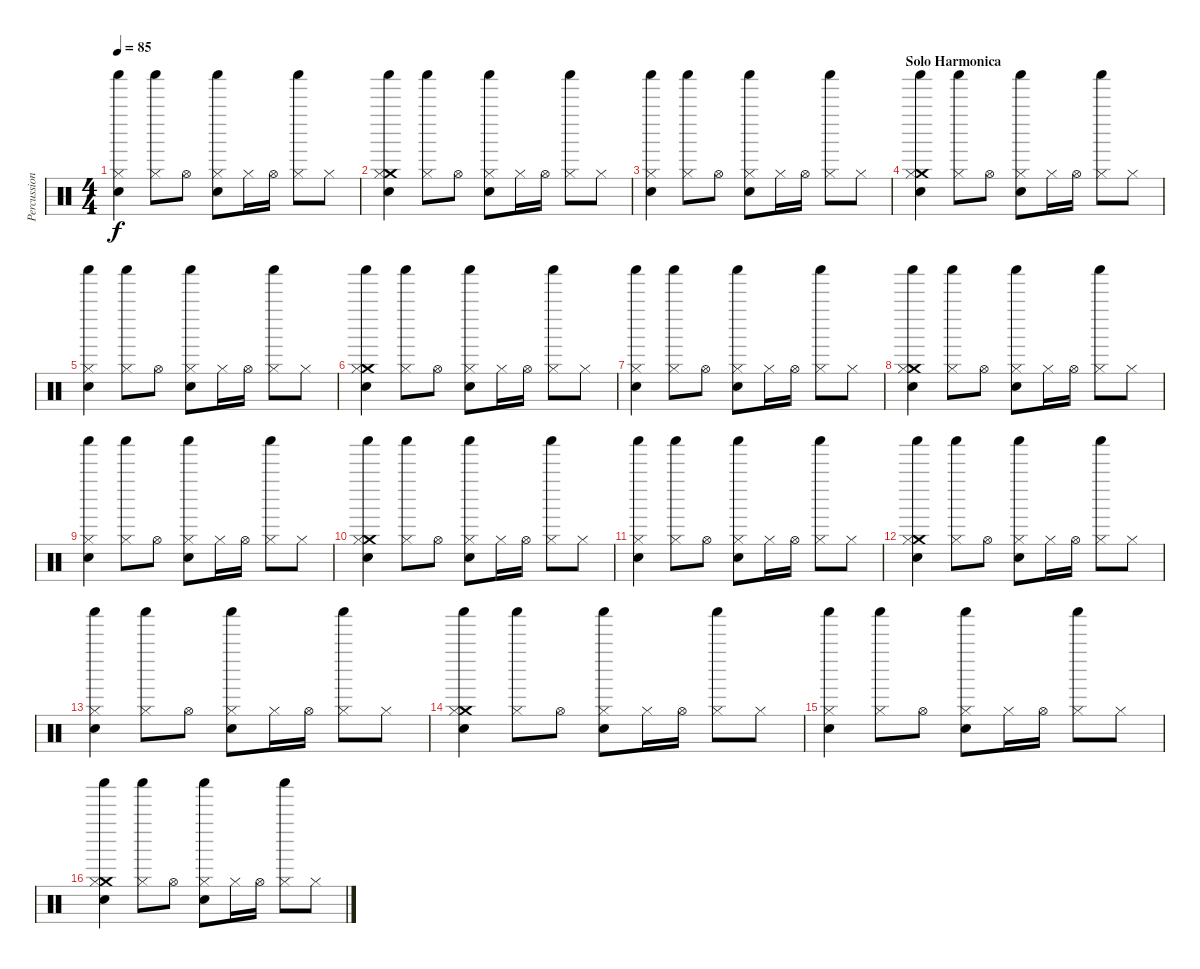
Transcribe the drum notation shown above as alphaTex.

\track ("Percussions" "Percussion") {instrument percussion}
\staff {score}
\articulation defaults
\ts (4 4)
\tempo 85
\clef neutral
\ks c
("Shaker (hit)" "Electric Snare (hit)" "Hi-Hat (closed)").4{dy f} ("Shaker (hit)" "Hi-Hat (closed)").8 "Hi-Hat (open)".8 ("Shaker (hit)" "Electric Snare (hit)" "Hi-Hat (closed)").8 "Hi-Hat (closed)".16 "Hi-Hat (open)".16 ("Shaker (hit)" "Hi-Hat (closed)").8 "Hi-Hat (closed)".8 |
("Shaker (hit)" "Electric Snare (hit)" "Crash medium (hit)" "Hi-Hat (closed)").4 ("Shaker (hit)" "Hi-Hat (closed)").8 "Hi-Hat (open)".8 ("Shaker (hit)" "Electric Snare (hit)" "Hi-Hat (closed)").8 "Hi-Hat (closed)".16 "Hi-Hat (open)".16 ("Shaker (hit)" "Hi-Hat (closed)").8 "Hi-Hat (closed)".8 |
("Shaker (hit)" "Electric Snare (hit)" "Hi-Hat (closed)").4 ("Shaker (hit)" "Hi-Hat (closed)").8 "Hi-Hat (open)".8 ("Shaker (hit)" "Electric Snare (hit)" "Hi-Hat (closed)").8 "Hi-Hat (closed)".16 "Hi-Hat (open)".16 ("Shaker (hit)" "Hi-Hat (closed)").8 "Hi-Hat (closed)".8 |
\section ("" "Solo Harmonica")
("Shaker (hit)" "Electric Snare (hit)" "Crash medium (hit)" "Hi-Hat (closed)").4 ("Shaker (hit)" "Hi-Hat (closed)").8 "Hi-Hat (open)".8 ("Shaker (hit)" "Electric Snare (hit)" "Hi-Hat (closed)").8 "Hi-Hat (closed)".16 "Hi-Hat (open)".16 ("Shaker (hit)" "Hi-Hat (closed)").8 "Hi-Hat (closed)".8 |
("Shaker (hit)" "Electric Snare (hit)" "Hi-Hat (closed)").4 ("Shaker (hit)" "Hi-Hat (closed)").8 "Hi-Hat (open)".8 ("Shaker (hit)" "Electric Snare (hit)" "Hi-Hat (closed)").8 "Hi-Hat (closed)".16 "Hi-Hat (open)".16 ("Shaker (hit)" "Hi-Hat (closed)").8 "Hi-Hat (closed)".8 |
("Shaker (hit)" "Electric Snare (hit)" "Crash medium (hit)" "Hi-Hat (closed)").4 ("Shaker (hit)" "Hi-Hat (closed)").8 "Hi-Hat (open)".8 ("Shaker (hit)" "Electric Snare (hit)" "Hi-Hat (closed)").8 "Hi-Hat (closed)".16 "Hi-Hat (open)".16 ("Shaker (hit)" "Hi-Hat (closed)").8 "Hi-Hat (closed)".8 |
("Shaker (hit)" "Electric Snare (hit)" "Hi-Hat (closed)").4 ("Shaker (hit)" "Hi-Hat (closed)").8 "Hi-Hat (open)".8 ("Shaker (hit)" "Electric Snare (hit)" "Hi-Hat (closed)").8 "Hi-Hat (closed)".16 "Hi-Hat (open)".16 ("Shaker (hit)" "Hi-Hat (closed)").8 "Hi-Hat (closed)".8 |
("Shaker (hit)" "Electric Snare (hit)" "Crash medium (hit)" "Hi-Hat (closed)").4 ("Shaker (hit)" "Hi-Hat (closed)").8 "Hi-Hat (open)".8 ("Shaker (hit)" "Electric Snare (hit)" "Hi-Hat (closed)").8 "Hi-Hat (closed)".16 "Hi-Hat (open)".16 ("Shaker (hit)" "Hi-Hat (closed)").8 "Hi-Hat (closed)".8 |
("Shaker (hit)" "Electric Snare (hit)" "Hi-Hat (closed)").4 ("Shaker (hit)" "Hi-Hat (closed)").8 "Hi-Hat (open)".8 ("Shaker (hit)" "Electric Snare (hit)" "Hi-Hat (closed)").8 "Hi-Hat (closed)".16 "Hi-Hat (open)".16 ("Shaker (hit)" "Hi-Hat (closed)").8 "Hi-Hat (closed)".8 |
("Shaker (hit)" "Electric Snare (hit)" "Crash medium (hit)" "Hi-Hat (closed)").4 ("Shaker (hit)" "Hi-Hat (closed)").8 "Hi-Hat (open)".8 ("Shaker (hit)" "Electric Snare (hit)" "Hi-Hat (closed)").8 "Hi-Hat (closed)".16 "Hi-Hat (open)".16 ("Shaker (hit)" "Hi-Hat (closed)").8 "Hi-Hat (closed)".8 |
("Shaker (hit)" "Electric Snare (hit)" "Hi-Hat (closed)").4 ("Shaker (hit)" "Hi-Hat (closed)").8 "Hi-Hat (open)".8 ("Shaker (hit)" "Electric Snare (hit)" "Hi-Hat (closed)").8 "Hi-Hat (closed)".16 "Hi-Hat (open)".16 ("Shaker (hit)" "Hi-Hat (closed)").8 "Hi-Hat (closed)".8 |
("Shaker (hit)" "Electric Snare (hit)" "Crash medium (hit)" "Hi-Hat (closed)").4 ("Shaker (hit)" "Hi-Hat (closed)").8 "Hi-Hat (open)".8 ("Shaker (hit)" "Electric Snare (hit)" "Hi-Hat (closed)").8 "Hi-Hat (closed)".16 "Hi-Hat (open)".16 ("Shaker (hit)" "Hi-Hat (closed)").8 "Hi-Hat (closed)".8 |
("Shaker (hit)" "Electric Snare (hit)" "Hi-Hat (closed)").4 ("Shaker (hit)" "Hi-Hat (closed)").8 "Hi-Hat (open)".8 ("Shaker (hit)" "Electric Snare (hit)" "Hi-Hat (closed)").8 "Hi-Hat (closed)".16 "Hi-Hat (open)".16 ("Shaker (hit)" "Hi-Hat (closed)").8 "Hi-Hat (closed)".8 |
("Shaker (hit)" "Electric Snare (hit)" "Crash medium (hit)" "Hi-Hat (closed)").4 ("Shaker (hit)" "Hi-Hat (closed)").8 "Hi-Hat (open)".8 ("Shaker (hit)" "Electric Snare (hit)" "Hi-Hat (closed)").8 "Hi-Hat (closed)".16 "Hi-Hat (open)".16 ("Shaker (hit)" "Hi-Hat (closed)").8 "Hi-Hat (closed)".8 |
("Shaker (hit)" "Electric Snare (hit)" "Hi-Hat (closed)").4 ("Shaker (hit)" "Hi-Hat (closed)").8 "Hi-Hat (open)".8 ("Shaker (hit)" "Electric Snare (hit)" "Hi-Hat (closed)").8 "Hi-Hat (closed)".16 "Hi-Hat (open)".16 ("Shaker (hit)" "Hi-Hat (closed)").8 "Hi-Hat (closed)".8 |
("Shaker (hit)" "Electric Snare (hit)" "Crash medium (hit)" "Hi-Hat (closed)").4 ("Shaker (hit)" "Hi-Hat (closed)").8 "Hi-Hat (open)".8 ("Shaker (hit)" "Electric Snare (hit)" "Hi-Hat (closed)").8 "Hi-Hat (closed)".16 "Hi-Hat (open)".16 ("Shaker (hit)" "Hi-Hat (closed)").8 "Hi-Hat (closed)".8
